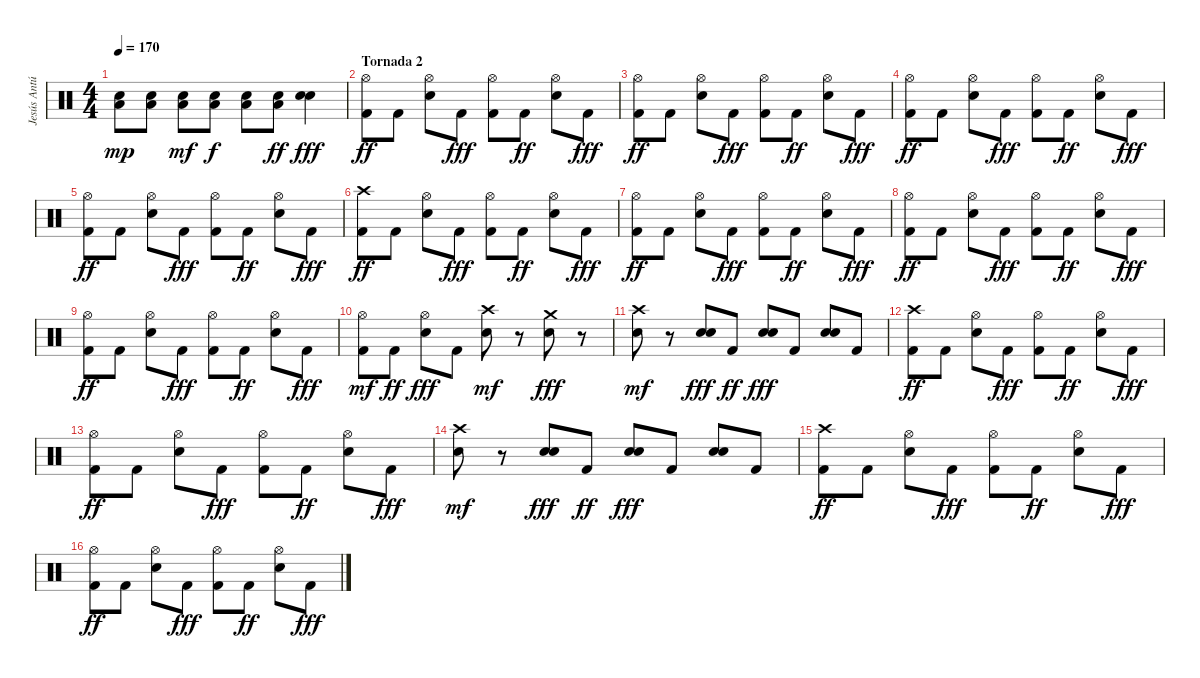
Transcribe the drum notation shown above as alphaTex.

\track ("Jesús Antúnez (Bateria)" "Jesús Antú") {instrument percussion}
\staff {score}
\articulation defaults
\ts (4 4)
\tempo 170
\clef neutral
\ks c
("Electric Snare (hit)" "Low Tom (hit)").8{dy mp} ("Electric Snare (hit)" "Low Tom (hit)").8 ("Electric Snare (hit)" "Low Tom (hit)").8{dy mf} ("Low Tom (hit)" "Electric Snare (hit)").8{dy f} ("Electric Snare (hit)" "Low Tom (hit)").8 ("Low Tom (hit)" "Electric Snare (hit)").8{dy ff} ("Electric Snare (hit)" "Electric Snare (hit)").4{dy fff} |
\section ("" "Tornada 2")
("Kick (hit) 2" "Hi-Hat (open)").8{dy ff} "Kick (hit) 2".8 ("Electric Snare (hit)" "Hi-Hat (open)").8 "Kick (hit) 2".8{dy fff} ("Kick (hit) 2" "Hi-Hat (open)").8 "Kick (hit) 2".8{dy ff} ("Electric Snare (hit)" "Hi-Hat (open)").8 "Kick (hit) 2".8{dy fff} |
("Kick (hit) 2" "Hi-Hat (open)").8{dy ff} "Kick (hit) 2".8 ("Electric Snare (hit)" "Hi-Hat (open)").8 "Kick (hit) 2".8{dy fff} ("Kick (hit) 2" "Hi-Hat (open)").8 "Kick (hit) 2".8{dy ff} ("Electric Snare (hit)" "Hi-Hat (open)").8 "Kick (hit) 2".8{dy fff} |
("Kick (hit) 2" "Hi-Hat (open)").8{dy ff} "Kick (hit) 2".8 ("Electric Snare (hit)" "Hi-Hat (open)").8 "Kick (hit) 2".8{dy fff} ("Kick (hit) 2" "Hi-Hat (open)").8 "Kick (hit) 2".8{dy ff} ("Electric Snare (hit)" "Hi-Hat (open)").8 "Kick (hit) 2".8{dy fff} |
("Kick (hit) 2" "Hi-Hat (open)").8{dy ff} "Kick (hit) 2".8 ("Electric Snare (hit)" "Hi-Hat (open)").8 "Kick (hit) 2".8{dy fff} ("Kick (hit) 2" "Hi-Hat (open)").8 "Kick (hit) 2".8{dy ff} ("Electric Snare (hit)" "Hi-Hat (open)").8 "Kick (hit) 2".8{dy fff} |
("Kick (hit) 2" "Crash high (hit)").8{dy ff} "Kick (hit) 2".8 ("Electric Snare (hit)" "Hi-Hat (open)").8 "Kick (hit) 2".8{dy fff} ("Kick (hit) 2" "Hi-Hat (open)").8 "Kick (hit) 2".8{dy ff} ("Electric Snare (hit)" "Hi-Hat (open)").8 "Kick (hit) 2".8{dy fff} |
("Kick (hit) 2" "Hi-Hat (open)").8{dy ff} "Kick (hit) 2".8 ("Electric Snare (hit)" "Hi-Hat (open)").8 "Kick (hit) 2".8{dy fff} ("Kick (hit) 2" "Hi-Hat (open)").8 "Kick (hit) 2".8{dy ff} ("Electric Snare (hit)" "Hi-Hat (open)").8 "Kick (hit) 2".8{dy fff} |
("Kick (hit) 2" "Hi-Hat (open)").8{dy ff} "Kick (hit) 2".8 ("Electric Snare (hit)" "Hi-Hat (open)").8 "Kick (hit) 2".8{dy fff} ("Kick (hit) 2" "Hi-Hat (open)").8 "Kick (hit) 2".8{dy ff} ("Electric Snare (hit)" "Hi-Hat (open)").8 "Kick (hit) 2".8{dy fff} |
("Kick (hit) 2" "Hi-Hat (open)").8{dy ff} "Kick (hit) 2".8 ("Electric Snare (hit)" "Hi-Hat (open)").8 "Kick (hit) 2".8{dy fff} ("Kick (hit) 2" "Hi-Hat (open)").8 "Kick (hit) 2".8{dy ff} ("Electric Snare (hit)" "Hi-Hat (open)").8 "Kick (hit) 2".8{dy fff} |
("Kick (hit) 2" "Hi-Hat (open)").8{dy mf} "Kick (hit) 2".8{dy ff} ("Electric Snare (hit)" "Hi-Hat (open)").8{dy fff} "Kick (hit) 2".8 ("Electric Snare (hit)" "Crash high (hit)").8{dy mf} r.8 ("Electric Snare (hit)" "Crash medium (hit)").8{dy fff} r.8 |
("Electric Snare (hit)" "Crash high (hit)").8{dy mf} r.8 ("Electric Snare (hit)" "Electric Snare (hit)").8{dy fff} "Kick (hit) 2".8{dy ff} ("Electric Snare (hit)" "Electric Snare (hit)").8{dy fff} "Kick (hit) 2".8 ("Electric Snare (hit)" "Electric Snare (hit)").8 "Kick (hit) 2".8 |
("Kick (hit) 2" "Crash high (hit)").8{dy ff} "Kick (hit) 2".8 ("Electric Snare (hit)" "Hi-Hat (open)").8 "Kick (hit) 2".8{dy fff} ("Kick (hit) 2" "Hi-Hat (open)").8 "Kick (hit) 2".8{dy ff} ("Electric Snare (hit)" "Hi-Hat (open)").8 "Kick (hit) 2".8{dy fff} |
("Kick (hit) 2" "Hi-Hat (open)").8{dy ff} "Kick (hit) 2".8 ("Electric Snare (hit)" "Hi-Hat (open)").8 "Kick (hit) 2".8{dy fff} ("Kick (hit) 2" "Hi-Hat (open)").8 "Kick (hit) 2".8{dy ff} ("Electric Snare (hit)" "Hi-Hat (open)").8 "Kick (hit) 2".8{dy fff} |
("Electric Snare (hit)" "Crash high (hit)").8{dy mf} r.8 ("Electric Snare (hit)" "Electric Snare (hit)").8{dy fff} "Kick (hit) 2".8{dy ff} ("Electric Snare (hit)" "Electric Snare (hit)").8{dy fff} "Kick (hit) 2".8 ("Electric Snare (hit)" "Electric Snare (hit)").8 "Kick (hit) 2".8 |
("Kick (hit) 2" "Crash high (hit)").8{dy ff} "Kick (hit) 2".8 ("Electric Snare (hit)" "Hi-Hat (open)").8 "Kick (hit) 2".8{dy fff} ("Kick (hit) 2" "Hi-Hat (open)").8 "Kick (hit) 2".8{dy ff} ("Electric Snare (hit)" "Hi-Hat (open)").8 "Kick (hit) 2".8{dy fff} |
("Kick (hit) 2" "Hi-Hat (open)").8{dy ff} "Kick (hit) 2".8 ("Electric Snare (hit)" "Hi-Hat (open)").8 "Kick (hit) 2".8{dy fff} ("Kick (hit) 2" "Hi-Hat (open)").8 "Kick (hit) 2".8{dy ff} ("Electric Snare (hit)" "Hi-Hat (open)").8 "Kick (hit) 2".8{dy fff}
